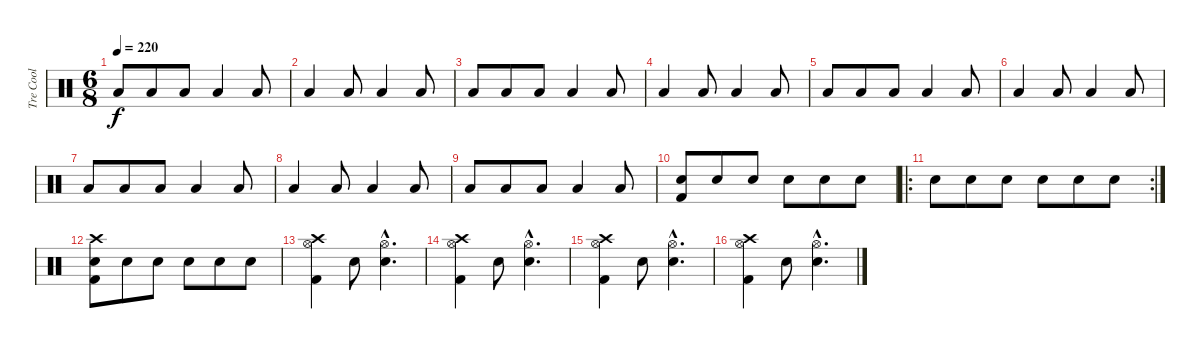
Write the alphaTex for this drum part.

\track ("Tre Cool" "Tre Cool") {instrument percussion}
\staff {score}
\articulation defaults
\ts (6 8)
\tempo 220
\clef neutral
\ks c "Low Floor Tom (hit)".8{dy f} "Low Floor Tom (hit)".8 "Low Floor Tom (hit)".8 "Low Tom (hit)".4 "Low Tom (hit)".8
|
"Low Floor Tom (hit)".4 "Low Floor Tom (hit)".8 "Low Tom (hit)".4 "Low Tom (hit)".8 |
"Low Floor Tom (hit)".8 "Low Floor Tom (hit)".8 "Low Floor Tom (hit)".8 "Low Tom (hit)".4 "Low Tom (hit)".8 |
"Low Floor Tom (hit)".4 "Low Floor Tom (hit)".8 "Low Tom (hit)".4 "Low Tom (hit)".8 |
"Low Floor Tom (hit)".8 "Low Floor Tom (hit)".8 "Low Floor Tom (hit)".8 "Low Tom (hit)".4 "Low Tom (hit)".8 |
"Low Floor Tom (hit)".4 "Low Floor Tom (hit)".8 "Low Tom (hit)".4 "Low Tom (hit)".8 |
"Low Floor Tom (hit)".8 "Low Floor Tom (hit)".8 "Low Floor Tom (hit)".8 "Low Tom (hit)".4 "Low Tom (hit)".8 |
"Low Floor Tom (hit)".4 "Low Floor Tom (hit)".8 "Low Tom (hit)".4 "Low Tom (hit)".8 |
"Low Floor Tom (hit)".8 "Low Floor Tom (hit)".8 "Low Floor Tom (hit)".8 "Low Tom (hit)".4 "Low Tom (hit)".8 |
("Electric Snare (hit)" "Kick (hit) 2").8 "Electric Snare (hit)".8 "Electric Snare (hit)".8 "Electric Snare (hit)".8 "Electric Snare (hit)".8 "Electric Snare (hit)".8 |
\ro
\rc 2 "Electric Snare (hit)".8 "Electric Snare (hit)".8 "Electric Snare (hit)".8 "Electric Snare (hit)".8 "Electric Snare (hit)".8 "Electric Snare (hit)".8
|
("Crash high (hit)" "Kick (hit) 2" "Electric Snare (hit)").8 "Electric Snare (hit)".8 "Electric Snare (hit)".8 "Electric Snare (hit)".8 "Electric Snare (hit)".8 "Electric Snare (hit)".8 |
("Hi-Hat (open)" "Crash high (hit)" "Kick (hit) 2").4 "Snare (hit) 2".8 ("Electric Snare (hit)"{hac} "Hi-Hat (open)"{hac}).4{d} |
("Hi-Hat (open)" "Crash high (hit)" "Kick (hit) 2").4 "Snare (hit) 2".8 ("Electric Snare (hit)"{hac} "Hi-Hat (open)"{hac}).4{d} |
("Hi-Hat (open)" "Crash high (hit)" "Kick (hit) 2").4 "Snare (hit) 2".8 ("Electric Snare (hit)"{hac} "Hi-Hat (open)"{hac}).4{d} |
("Hi-Hat (open)" "Crash high (hit)" "Kick (hit) 2").4 "Snare (hit) 2".8 ("Electric Snare (hit)"{hac} "Hi-Hat (open)"{hac}).4{d}
